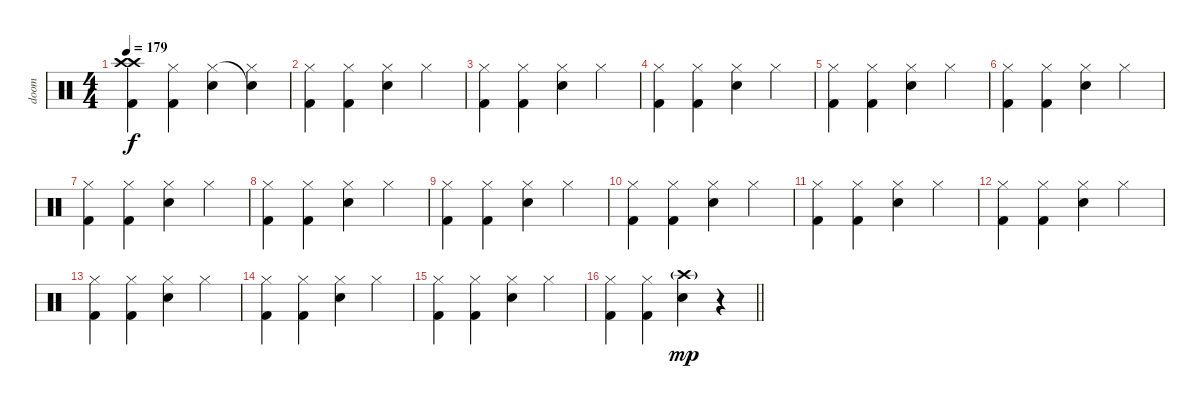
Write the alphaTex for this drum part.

\track ("doom" "doom") {instrument percussion}
\staff {score}
\articulation defaults
\ts (4 4)
\tempo 179
\clef neutral
\ks c
("Crash high (hit)" "Crash high (hit)" "Kick (hit) 2").4{dy f} ("Hi-Hat (closed)" "Kick (hit) 2").4 ("Hi-Hat (closed)" "Snare (hit) 2").4 ("Snare (hit)"{t} "Hi-Hat (closed)").4 |
("Hi-Hat (closed)" "Kick (hit) 2").4 ("Hi-Hat (closed)" "Kick (hit) 2").4 ("Hi-Hat (closed)" "Snare (hit) 2").4 "Hi-Hat (closed)".4 |
("Hi-Hat (closed)" "Kick (hit) 2").4 ("Hi-Hat (closed)" "Kick (hit) 2").4 ("Hi-Hat (closed)" "Snare (hit) 2").4 "Hi-Hat (closed)".4 |
("Hi-Hat (closed)" "Kick (hit) 2").4 ("Hi-Hat (closed)" "Kick (hit) 2").4 ("Hi-Hat (closed)" "Snare (hit) 2").4 "Hi-Hat (closed)".4 |
("Hi-Hat (closed)" "Kick (hit) 2").4 ("Hi-Hat (closed)" "Kick (hit) 2").4 ("Hi-Hat (closed)" "Snare (hit) 2").4 "Hi-Hat (closed)".4 |
("Hi-Hat (closed)" "Kick (hit) 2").4 ("Hi-Hat (closed)" "Kick (hit) 2").4 ("Hi-Hat (closed)" "Snare (hit) 2").4 "Hi-Hat (closed)".4 |
("Hi-Hat (closed)" "Kick (hit) 2").4 ("Hi-Hat (closed)" "Kick (hit) 2").4 ("Hi-Hat (closed)" "Snare (hit) 2").4 "Hi-Hat (closed)".4 |
("Hi-Hat (closed)" "Kick (hit) 2").4 ("Hi-Hat (closed)" "Kick (hit) 2").4 ("Hi-Hat (closed)" "Snare (hit) 2").4 "Hi-Hat (closed)".4 |
("Hi-Hat (closed)" "Kick (hit) 2").4 ("Hi-Hat (closed)" "Kick (hit) 2").4 ("Hi-Hat (closed)" "Snare (hit) 2").4 "Hi-Hat (closed)".4 |
("Hi-Hat (closed)" "Kick (hit) 2").4 ("Hi-Hat (closed)" "Kick (hit) 2").4 ("Hi-Hat (closed)" "Snare (hit) 2").4 "Hi-Hat (closed)".4 |
("Hi-Hat (closed)" "Kick (hit) 2").4 ("Hi-Hat (closed)" "Kick (hit) 2").4 ("Hi-Hat (closed)" "Snare (hit) 2").4 "Hi-Hat (closed)".4 |
("Hi-Hat (closed)" "Kick (hit) 2").4 ("Hi-Hat (closed)" "Kick (hit) 2").4 ("Hi-Hat (closed)" "Snare (hit) 2").4 "Hi-Hat (closed)".4 |
("Hi-Hat (closed)" "Kick (hit) 2").4 ("Hi-Hat (closed)" "Kick (hit) 2").4 ("Hi-Hat (closed)" "Snare (hit) 2").4 "Hi-Hat (closed)".4 |
("Hi-Hat (closed)" "Kick (hit) 2").4 ("Hi-Hat (closed)" "Kick (hit) 2").4 ("Hi-Hat (closed)" "Snare (hit) 2").4 "Hi-Hat (closed)".4 |
("Hi-Hat (closed)" "Kick (hit) 2").4 ("Hi-Hat (closed)" "Kick (hit) 2").4 ("Hi-Hat (closed)" "Snare (hit) 2").4 "Hi-Hat (closed)".4 |
\barLineRight lightlight
("Hi-Hat (closed)" "Kick (hit) 2").4 ("Hi-Hat (closed)" "Kick (hit) 2").4 ("Crash high (hit)"{g} "Snare (hit) 2").4{dy mp} r.4
